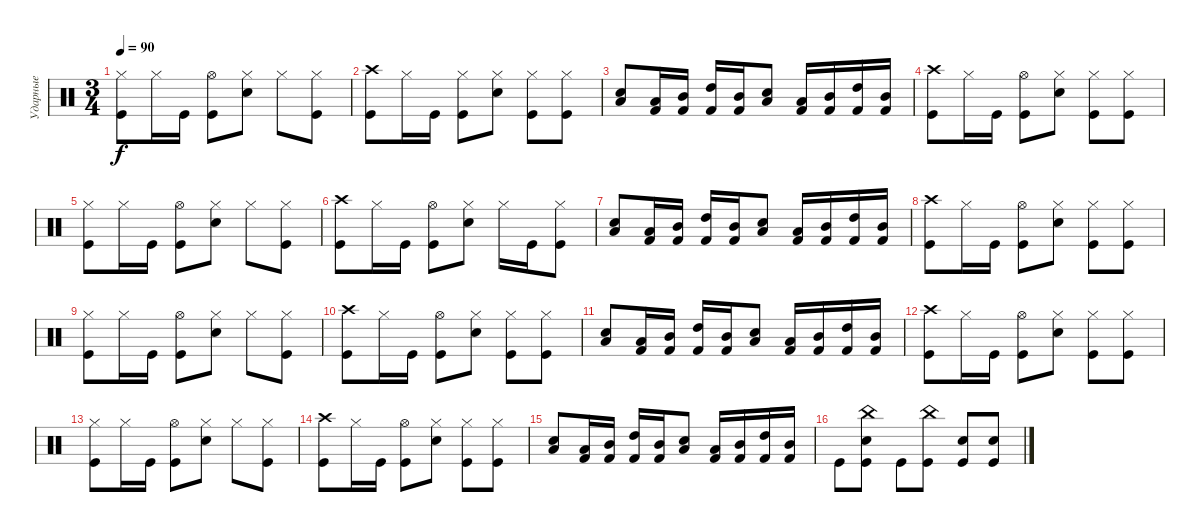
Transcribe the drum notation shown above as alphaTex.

\track ("Ударные" "Ударные") {instrument percussion}
\staff {score}
\articulation defaults
\ts (3 4)
\tempo 90
\clef neutral
\ks c
("Hi-Hat (closed)" "Kick (hit)").8{dy f} "Hi-Hat (closed)".16 "Kick (hit)".16 ("Hi-Hat (open)" "Kick (hit)").8 ("Hi-Hat (closed)" "Electric Snare (hit)").8 "Hi-Hat (closed)".8 ("Hi-Hat (closed)" "Kick (hit)").8 |
("Crash high (hit)" "Kick (hit)").8 "Hi-Hat (closed)".16 "Kick (hit)".16 ("Hi-Hat (closed)" "Kick (hit)").8 ("Hi-Hat (closed)" "Electric Snare (hit)").8 ("Hi-Hat (closed)" "Kick (hit)").8 ("Hi-Hat (closed)" "Kick (hit)").8 |
("Low Floor Tom (hit)" "Electric Snare (hit)").8 ("Low Tom (hit)" "Kick (hit) 2").16 ("Mid Tom (hit)" "Kick (hit) 2").16 ("High Tom (hit)" "Kick (hit) 2").16 ("Mid Tom (hit)" "Kick (hit) 2").16 ("Low Floor Tom (hit)" "Electric Snare (hit)").8 ("Low Tom (hit)" "Kick (hit) 2").16 ("Mid Tom (hit)" "Kick (hit) 2").16 ("High Tom (hit)" "Kick (hit) 2").16 ("Mid Tom (hit)" "Kick (hit) 2").16 |
("Crash high (hit)" "Kick (hit)").8 "Hi-Hat (closed)".16 "Kick (hit)".16 ("Hi-Hat (open)" "Kick (hit)").8 ("Hi-Hat (closed)" "Electric Snare (hit)").8 ("Hi-Hat (closed)" "Kick (hit)").8 ("Hi-Hat (closed)" "Kick (hit)").8 |
("Hi-Hat (closed)" "Kick (hit)").8 "Hi-Hat (closed)".16 "Kick (hit)".16 ("Hi-Hat (open)" "Kick (hit)").8 ("Hi-Hat (closed)" "Electric Snare (hit)").8 "Hi-Hat (closed)".8 ("Hi-Hat (closed)" "Kick (hit)").8 |
("Crash high (hit)" "Kick (hit)").8 "Hi-Hat (closed)".16 "Kick (hit)".16 ("Hi-Hat (open)" "Kick (hit)").8 ("Hi-Hat (closed)" "Electric Snare (hit)").8 "Hi-Hat (closed)".16 "Kick (hit)".16 ("Hi-Hat (closed)" "Kick (hit)").8 |
("Low Floor Tom (hit)" "Electric Snare (hit)").8 ("Low Tom (hit)" "Kick (hit) 2").16 ("Mid Tom (hit)" "Kick (hit) 2").16 ("High Tom (hit)" "Kick (hit) 2").16 ("Mid Tom (hit)" "Kick (hit) 2").16 ("Low Floor Tom (hit)" "Electric Snare (hit)").8 ("Low Tom (hit)" "Kick (hit) 2").16 ("Mid Tom (hit)" "Kick (hit) 2").16 ("High Tom (hit)" "Kick (hit) 2").16 ("Mid Tom (hit)" "Kick (hit) 2").16 |
("Crash high (hit)" "Kick (hit)").8 "Hi-Hat (closed)".16 "Kick (hit)".16 ("Hi-Hat (open)" "Kick (hit)").8 ("Hi-Hat (closed)" "Electric Snare (hit)").8 ("Hi-Hat (closed)" "Kick (hit)").8 ("Hi-Hat (closed)" "Kick (hit)").8 |
("Hi-Hat (closed)" "Kick (hit)").8 "Hi-Hat (closed)".16 "Kick (hit)".16 ("Hi-Hat (open)" "Kick (hit)").8 ("Hi-Hat (closed)" "Electric Snare (hit)").8 "Hi-Hat (closed)".8 ("Hi-Hat (closed)" "Kick (hit)").8 |
("Crash high (hit)" "Kick (hit)").8 "Hi-Hat (closed)".16 "Kick (hit)".16 ("Hi-Hat (open)" "Kick (hit)").8 ("Hi-Hat (closed)" "Electric Snare (hit)").8 ("Hi-Hat (closed)" "Kick (hit)").8 ("Hi-Hat (closed)" "Kick (hit)").8 |
("Low Floor Tom (hit)" "Electric Snare (hit)").8 ("Low Tom (hit)" "Kick (hit) 2").16 ("Mid Tom (hit)" "Kick (hit) 2").16 ("High Tom (hit)" "Kick (hit) 2").16 ("Mid Tom (hit)" "Kick (hit) 2").16 ("Low Floor Tom (hit)" "Electric Snare (hit)").8 ("Low Tom (hit)" "Kick (hit) 2").16 ("Mid Tom (hit)" "Kick (hit) 2").16 ("High Tom (hit)" "Kick (hit) 2").16 ("Mid Tom (hit)" "Kick (hit) 2").16 |
("Crash high (hit)" "Kick (hit)").8 "Hi-Hat (closed)".16 "Kick (hit)".16 ("Hi-Hat (open)" "Kick (hit)").8 ("Hi-Hat (closed)" "Electric Snare (hit)").8 ("Hi-Hat (closed)" "Kick (hit)").8 ("Hi-Hat (closed)" "Kick (hit)").8 |
("Hi-Hat (closed)" "Kick (hit)").8 "Hi-Hat (closed)".16 "Kick (hit)".16 ("Hi-Hat (open)" "Kick (hit)").8 ("Hi-Hat (closed)" "Electric Snare (hit)").8 "Hi-Hat (closed)".8 ("Hi-Hat (closed)" "Kick (hit)").8 |
("Crash high (hit)" "Kick (hit)").8 "Hi-Hat (closed)".16 "Kick (hit)".16 ("Hi-Hat (open)" "Kick (hit)").8 ("Hi-Hat (closed)" "Electric Snare (hit)").8 ("Hi-Hat (closed)" "Kick (hit)").8 ("Hi-Hat (closed)" "Kick (hit)").8 |
("Low Floor Tom (hit)" "Electric Snare (hit)").8 ("Low Tom (hit)" "Kick (hit) 2").16 ("Mid Tom (hit)" "Kick (hit) 2").16 ("High Tom (hit)" "Kick (hit) 2").16 ("Mid Tom (hit)" "Kick (hit) 2").16 ("Low Floor Tom (hit)" "Electric Snare (hit)").8 ("Low Tom (hit)" "Kick (hit) 2").16 ("Mid Tom (hit)" "Kick (hit) 2").16 ("High Tom (hit)" "Kick (hit) 2").16 ("Mid Tom (hit)" "Kick (hit) 2").16 |
"Kick (hit)".8 ("China (hit)" "Electric Snare (hit)" "Kick (hit)").8 "Kick (hit)".8 ("China (hit)" "Kick (hit)").8 ("Electric Snare (hit)" "Kick (hit)").8 ("Electric Snare (hit)" "Kick (hit)").8
